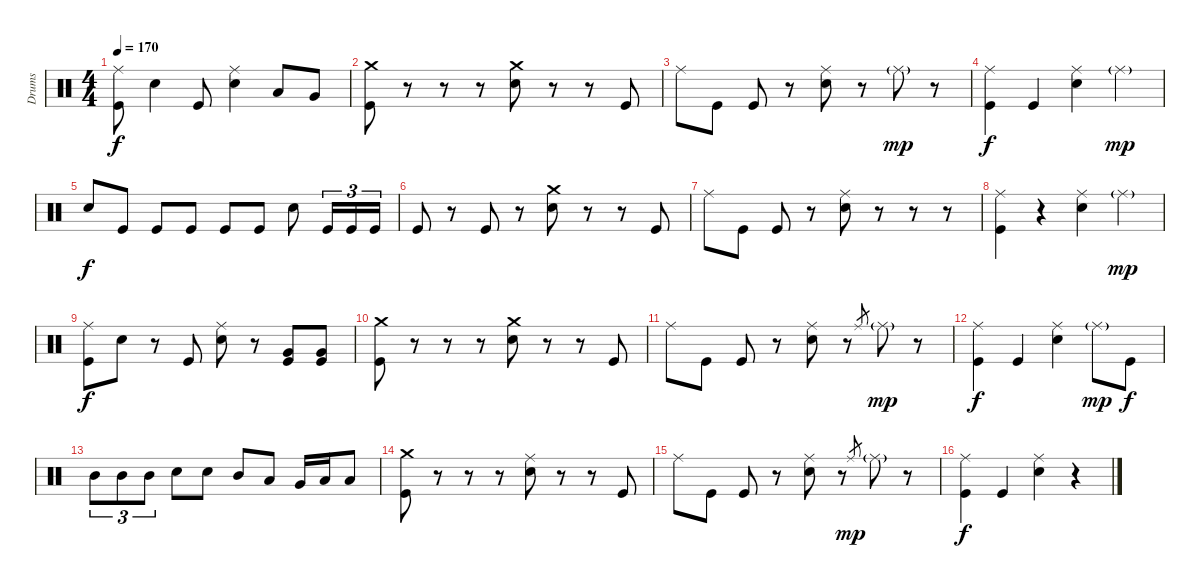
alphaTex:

\track ("Drums" "Drums") {instrument percussion}
\staff {score}
\articulation defaults
\ts (4 4)
\tempo 170
\clef neutral
\ks c
("Ride (middle)" "Kick (hit)").8{dy f} "Electric Snare (hit)".4 "Kick (hit)".8 ("Ride (middle)" "Electric Snare (hit)").4 "Low Tom (hit)".8 "Very Low Tom (hit)".8 |
("Crash medium (hit)" "Kick (hit)").8 r.8 r.8 r.8 ("Crash medium (hit)" "Electric Snare (hit)").8 r.8 r.8 "Kick (hit)".8 |
"Ride (middle)".8 "Kick (hit)".8 "Kick (hit)".8 r.8 ("Ride (middle)" "Electric Snare (hit)").8 r.8 "Ride (middle)"{g}.8{dy mp} r.8 |
("Ride (middle)" "Kick (hit)").4{dy f} "Kick (hit)".4 ("Ride (middle)" "Electric Snare (hit)").4 "Ride (middle)"{g}.4{dy mp} |
"Electric Snare (hit)".8{dy f} "Kick (hit)".8 "Kick (hit)".8 "Kick (hit)".8 "Kick (hit)".8 "Kick (hit)".8 "Electric Snare (hit)".8 "Kick (hit)".16{tu (3 2)} "Kick (hit)".16{tu (3 2)} "Kick (hit)".16{tu (3 2)} |
"Kick (hit)".8 r.8 "Kick (hit)".8 r.8 ("Crash medium (hit)" "Electric Snare (hit)").8 r.8 r.8 "Kick (hit)".8 |
"Ride (middle)".8 "Kick (hit)".8 "Kick (hit)".8 r.8 ("Ride (middle)" "Electric Snare (hit)").8 r.8 r.8 r.8 |
("Ride (middle)" "Kick (hit)").4 r.4 ("Ride (middle)" "Electric Snare (hit)").4 "Ride (middle)"{g}.4{dy mp} |
("Ride (middle)" "Kick (hit)").8{dy f} "Electric Snare (hit)".8 r.8 "Kick (hit)".8 ("Ride (middle)" "Electric Snare (hit)").8 r.8 ("Very Low Tom (hit)" "Kick (hit)").8 ("Very Low Tom (hit)" "Kick (hit)").8 |
("Crash medium (hit)" "Kick (hit)").8 r.8 r.8 r.8 ("Crash medium (hit)" "Electric Snare (hit)").8 r.8 r.8 "Kick (hit)".8 |
"Ride (middle)".8 "Kick (hit)".8 "Kick (hit)".8 r.8 ("Ride (middle)" "Electric Snare (hit)").8 r.8 "Ride (middle)".8{gr} "Ride (middle)"{g}.8{dy mp} r.8 |
("Ride (middle)" "Kick (hit)").4{dy f} "Kick (hit)".4 ("Ride (middle)" "Electric Snare (hit)").4 "Ride (middle)"{g}.8{dy mp} "Kick (hit)".8{dy f} |
"Mid Tom (hit)".8{tu (3 2)} "Mid Tom (hit)".8{tu (3 2)} "Mid Tom (hit)".8{tu (3 2)} "Electric Snare (hit)".8 "Electric Snare (hit)".8 "Mid Tom (hit)".8 "Low Tom (hit)".8 "Very Low Tom (hit)".16 "Low Tom (hit)".16 "Low Floor Tom (hit)".8 |
("Crash medium (hit)" "Kick (hit)").8 r.8 r.8 r.8 ("Ride (middle)" "Electric Snare (hit)").8 r.8 r.8 "Kick (hit)".8 |
"Ride (middle)".8 "Kick (hit)".8 "Kick (hit)".8 r.8 ("Ride (middle)" "Electric Snare (hit)").8 r.8 "Ride (middle)".8{gr dy mp} "Ride (middle)"{g}.8 r.8 |
("Ride (middle)" "Kick (hit)").4{dy f} "Kick (hit)".4 ("Ride (middle)" "Electric Snare (hit)").4 r.4
